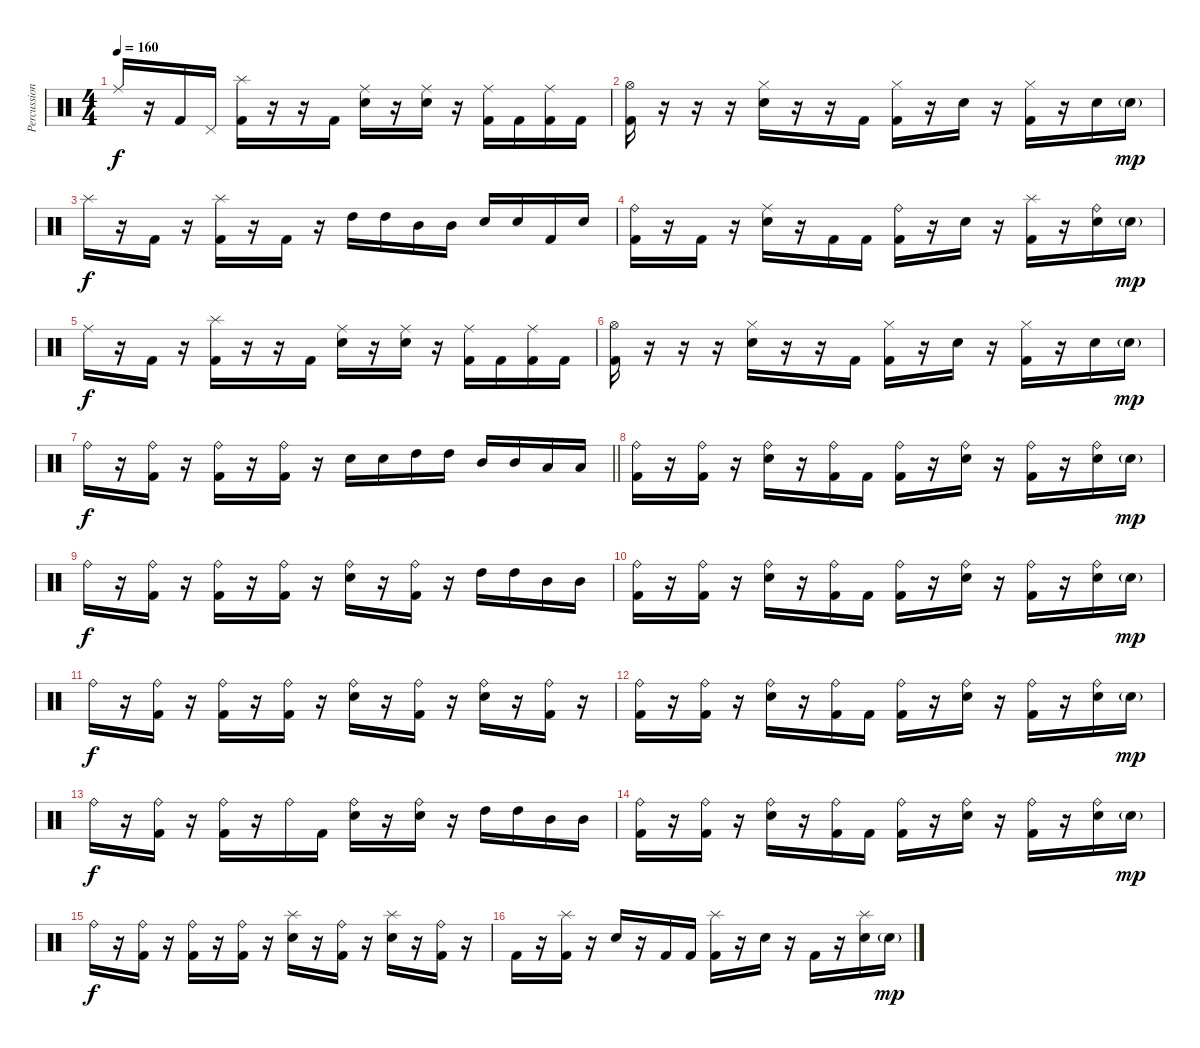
\track ("Percussion" "Percussion") {instrument percussion}
\staff {score}
\articulation defaults
\ts (4 4)
\tempo 160
\clef neutral
\ks c "Ride (middle)".16{dy f}
r.16 "Kick (hit) 2".16 "Pedal Hi-Hat (hit)".16 ("Splash (hit)" "Kick (hit) 2").16 r.16 r.16 "Kick (hit) 2".16 ("Ride (middle)" "Electric Snare (hit)").16 r.16 ("Ride (middle)" "Electric Snare (hit)").16 r.16 ("Ride (middle)" "Kick (hit) 2").16 "Kick (hit) 2".16 ("Ride (middle)" "Kick (hit) 2").16 "Kick (hit) 2".16 |
("Hi-Hat (open)" "Kick (hit) 2").16 r.16 r.16 r.16 ("Hi-Hat (closed)" "Electric Snare (hit)").16 r.16 r.16 "Kick (hit) 2".16 ("Hi-Hat (closed)" "Kick (hit) 2").16 r.16 "Electric Snare (hit)".16 r.16 ("Hi-Hat (closed)" "Kick (hit) 2").16 r.16 "Electric Snare (hit)".16 "Electric Snare (hit)"{g}.16{dy mp} |
"Splash (hit)".16{dy f} r.16 "Kick (hit) 2".16 r.16 ("Splash (hit)" "Kick (hit) 2").16 r.16 "Kick (hit) 2".16 r.16 "High Tom (hit)".16 "High Tom (hit)".16 "Mid Tom (hit)".16 "Mid Tom (hit)".16 "Electric Snare (hit)".16 "Electric Snare (hit)".16 "Kick (hit) 2".16 "Electric Snare (hit)".16 |
("Ride (bell)" "Kick (hit) 2").16 r.16 "Kick (hit) 2".16 r.16 ("Ride (middle)" "Electric Snare (hit)").16 r.16 "Kick (hit) 2".16 "Kick (hit) 2".16 ("Ride (bell)" "Kick (hit) 2").16 r.16 "Electric Snare (hit)".16 r.16 ("Splash (hit)" "Kick (hit) 2").16 r.16 ("Ride (bell)" "Electric Snare (hit)").16 "Electric Snare (hit)"{g}.16{dy mp} |
"Ride (middle)".16{dy f} r.16 "Kick (hit) 2".16 r.16 ("Splash (hit)" "Kick (hit) 2").16 r.16 r.16 "Kick (hit) 2".16 ("Ride (middle)" "Electric Snare (hit)").16 r.16 ("Ride (middle)" "Electric Snare (hit)").16 r.16 ("Ride (middle)" "Kick (hit) 2").16 "Kick (hit) 2".16 ("Ride (middle)" "Kick (hit) 2").16 "Kick (hit) 2".16 |
("Hi-Hat (open)" "Kick (hit) 2").16 r.16 r.16 r.16 ("Hi-Hat (closed)" "Electric Snare (hit)").16 r.16 r.16 "Kick (hit) 2".16 ("Hi-Hat (closed)" "Kick (hit) 2").16 r.16 "Electric Snare (hit)".16 r.16 ("Hi-Hat (closed)" "Kick (hit) 2").16 r.16 "Electric Snare (hit)".16 "Electric Snare (hit)"{g}.16{dy mp} |
\barLineRight lightlight "Ride (bell)".16{dy f}
r.16 ("Ride (bell)" "Kick (hit) 2").16 r.16 ("Ride (bell)" "Kick (hit) 2").16 r.16 ("Ride (bell)" "Kick (hit) 2").16 r.16 "Electric Snare (hit)".16 "Electric Snare (hit)".16 "High Tom (hit)".16 "High Tom (hit)".16 "Mid Tom (hit)".16 "Mid Tom (hit)".16 "Low Tom (hit)".16 "Low Tom (hit)".16 |
("Ride (bell)" "Kick (hit) 2").16 r.16 ("Ride (bell)" "Kick (hit) 2").16 r.16 ("Ride (bell)" "Electric Snare (hit)").16 r.16 ("Ride (bell)" "Kick (hit) 2").16 "Kick (hit) 2".16 ("Ride (bell)" "Kick (hit) 2").16 r.16 ("Ride (bell)" "Electric Snare (hit)").16 r.16 ("Ride (bell)" "Kick (hit) 2").16 r.16 ("Ride (bell)" "Electric Snare (hit)").16 "Electric Snare (hit)"{g}.16{dy mp} |
"Ride (bell)".16{dy f} r.16 ("Ride (bell)" "Kick (hit) 2").16 r.16 ("Ride (bell)" "Kick (hit) 2").16 r.16 ("Ride (bell)" "Kick (hit) 2").16 r.16 ("Ride (bell)" "Electric Snare (hit)").16 r.16 ("Ride (bell)" "Kick (hit) 2").16 r.16 "High Tom (hit)".16 "High Tom (hit)".16 "Mid Tom (hit)".16 "Mid Tom (hit)".16 |
("Ride (bell)" "Kick (hit) 2").16 r.16 ("Ride (bell)" "Kick (hit) 2").16 r.16 ("Ride (bell)" "Electric Snare (hit)").16 r.16 ("Ride (bell)" "Kick (hit) 2").16 "Kick (hit) 2".16 ("Ride (bell)" "Kick (hit) 2").16 r.16 ("Ride (bell)" "Electric Snare (hit)").16 r.16 ("Ride (bell)" "Kick (hit) 2").16 r.16 ("Ride (bell)" "Electric Snare (hit)").16 "Electric Snare (hit)"{g}.16{dy mp} |
"Ride (bell)".16{dy f} r.16 ("Ride (bell)" "Kick (hit) 2").16 r.16 ("Ride (bell)" "Kick (hit) 2").16 r.16 ("Ride (bell)" "Kick (hit) 2").16 r.16 ("Ride (bell)" "Electric Snare (hit)").16 r.16 ("Ride (bell)" "Kick (hit) 2").16 r.16 ("Ride (bell)" "Electric Snare (hit)").16 r.16 ("Ride (bell)" "Kick (hit) 2").16 r.16 |
("Ride (bell)" "Kick (hit) 2").16 r.16 ("Ride (bell)" "Kick (hit) 2").16 r.16 ("Ride (bell)" "Electric Snare (hit)").16 r.16 ("Ride (bell)" "Kick (hit) 2").16 "Kick (hit) 2".16 ("Ride (bell)" "Kick (hit) 2").16 r.16 ("Ride (bell)" "Electric Snare (hit)").16 r.16 ("Ride (bell)" "Kick (hit) 2").16 r.16 ("Ride (bell)" "Electric Snare (hit)").16 "Electric Snare (hit)"{g}.16{dy mp} |
"Ride (bell)".16{dy f} r.16 ("Ride (bell)" "Kick (hit) 2").16 r.16 ("Ride (bell)" "Kick (hit) 2").16 r.16 "Ride (bell)".16 "Kick (hit) 2".16 ("Ride (bell)" "Electric Snare (hit)").16 r.16 ("Ride (bell)" "Electric Snare (hit)").16 r.16 "High Tom (hit)".16 "High Tom (hit)".16 "Mid Tom (hit)".16 "Mid Tom (hit)".16 |
("Ride (bell)" "Kick (hit) 2").16 r.16 ("Ride (bell)" "Kick (hit) 2").16 r.16 ("Ride (bell)" "Electric Snare (hit)").16 r.16 ("Ride (bell)" "Kick (hit) 2").16 "Kick (hit) 2".16 ("Ride (bell)" "Kick (hit) 2").16 r.16 ("Ride (bell)" "Electric Snare (hit)").16 r.16 ("Ride (bell)" "Kick (hit) 2").16 r.16 ("Ride (bell)" "Electric Snare (hit)").16 "Electric Snare (hit)"{g}.16{dy mp} |
"Ride (bell)".16{dy f} r.16 ("Ride (bell)" "Kick (hit) 2").16 r.16 ("Ride (bell)" "Kick (hit) 2").16 r.16 ("Ride (bell)" "Kick (hit) 2").16 r.16 ("Splash (hit)" "Electric Snare (hit)").16 r.16 ("Ride (bell)" "Kick (hit) 2").16 r.16 ("Splash (hit)" "Electric Snare (hit)").16 r.16 ("Ride (bell)" "Kick (hit) 2").16 r.16 |
"Kick (hit) 2".16 r.16 ("Splash (hit)" "Kick (hit) 2").16 r.16 "Electric Snare (hit)".16 r.16 "Kick (hit) 2".16 "Kick (hit) 2".16 ("Splash (hit)" "Kick (hit) 2").16 r.16 "Electric Snare (hit)".16 r.16 "Kick (hit) 2".16 r.16 ("Splash (hit)" "Electric Snare (hit)").16 "Electric Snare (hit)"{g}.16{dy mp}
